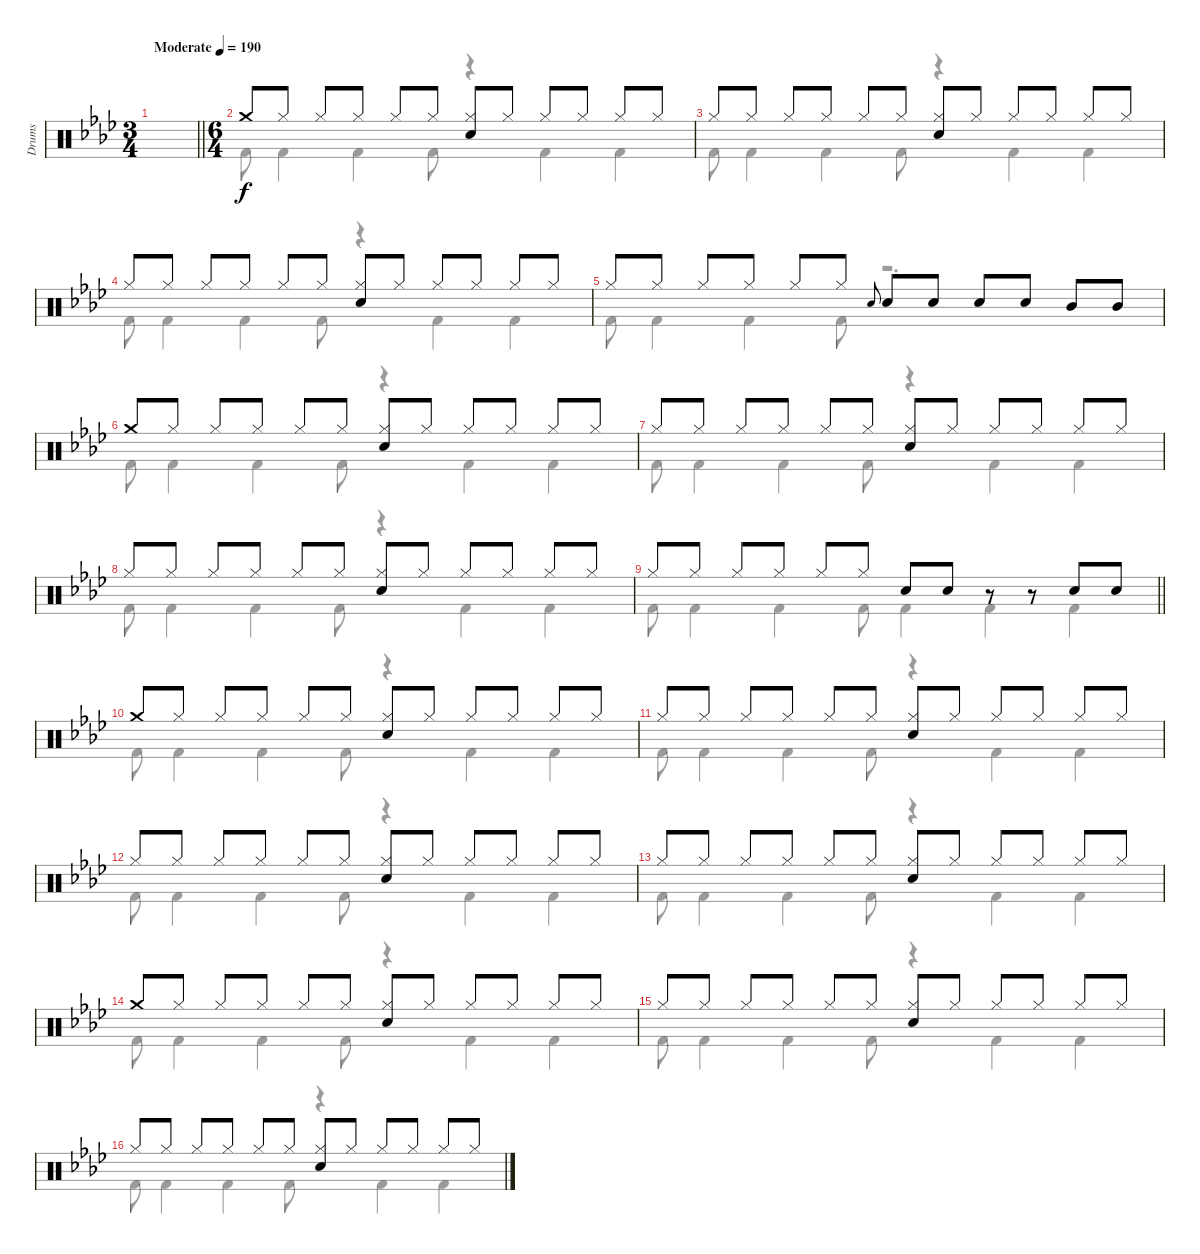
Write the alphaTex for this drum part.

\track ("Drums" "Drums") {instrument percussion}
\staff {score}
\articulation defaults
\voice
\ts (3 4)
\tempo (190 "Moderate")
\clef neutral
\barLineRight lightlight
\ks fminor
|
\ts (6 4)
"Crash medium (hit)".8 "Hi-Hat (closed)".8 "Hi-Hat (closed)".8 "Hi-Hat (closed)".8 "Hi-Hat (closed)".8 "Hi-Hat (closed)".8 ("Hi-Hat (closed)" "Snare (hit) 2").8 "Hi-Hat (closed)".8 "Hi-Hat (closed)".8 "Hi-Hat (closed)".8 "Hi-Hat (closed)".8 "Hi-Hat (closed)".8 |
"Hi-Hat (closed)".8 "Hi-Hat (closed)".8 "Hi-Hat (closed)".8 "Hi-Hat (closed)".8 "Hi-Hat (closed)".8 "Hi-Hat (closed)".8 ("Hi-Hat (closed)" "Snare (hit) 2").8 "Hi-Hat (closed)".8 "Hi-Hat (closed)".8 "Hi-Hat (closed)".8 "Hi-Hat (closed)".8 "Hi-Hat (closed)".8 |
"Hi-Hat (closed)".8 "Hi-Hat (closed)".8 "Hi-Hat (closed)".8 "Hi-Hat (closed)".8 "Hi-Hat (closed)".8 "Hi-Hat (closed)".8 ("Hi-Hat (closed)" "Snare (hit) 2").8 "Hi-Hat (closed)".8 "Hi-Hat (closed)".8 "Hi-Hat (closed)".8 "Hi-Hat (closed)".8 "Hi-Hat (closed)".8 |
"Hi-Hat (closed)".8 "Hi-Hat (closed)".8 "Hi-Hat (closed)".8 "Hi-Hat (closed)".8 "Hi-Hat (closed)".8 "Hi-Hat (closed)".8 "Snare (hit) 2".8{gr onbeat} "Snare (hit) 2".8 "Snare (hit) 2".8 "Snare (hit) 2".8 "Snare (hit) 2".8 "Mid Tom (hit)".8 "Mid Tom (hit)".8 |
"Crash medium (hit)".8 "Hi-Hat (closed)".8 "Hi-Hat (closed)".8 "Hi-Hat (closed)".8 "Hi-Hat (closed)".8 "Hi-Hat (closed)".8 ("Hi-Hat (closed)" "Snare (hit) 2").8 "Hi-Hat (closed)".8 "Hi-Hat (closed)".8 "Hi-Hat (closed)".8 "Hi-Hat (closed)".8 "Hi-Hat (closed)".8 |
"Hi-Hat (closed)".8 "Hi-Hat (closed)".8 "Hi-Hat (closed)".8 "Hi-Hat (closed)".8 "Hi-Hat (closed)".8 "Hi-Hat (closed)".8 ("Hi-Hat (closed)" "Snare (hit) 2").8 "Hi-Hat (closed)".8 "Hi-Hat (closed)".8 "Hi-Hat (closed)".8 "Hi-Hat (closed)".8 "Hi-Hat (closed)".8 |
"Hi-Hat (closed)".8 "Hi-Hat (closed)".8 "Hi-Hat (closed)".8 "Hi-Hat (closed)".8 "Hi-Hat (closed)".8 "Hi-Hat (closed)".8 ("Hi-Hat (closed)" "Snare (hit) 2").8 "Hi-Hat (closed)".8 "Hi-Hat (closed)".8 "Hi-Hat (closed)".8 "Hi-Hat (closed)".8 "Hi-Hat (closed)".8 |
\barLineRight lightlight "Hi-Hat (closed)".8 "Hi-Hat (closed)".8 "Hi-Hat (closed)".8 "Hi-Hat (closed)".8 "Hi-Hat (closed)".8 "Hi-Hat (closed)".8 "Snare (hit) 2".8 "Snare (hit) 2".8
r.8 r.8 "Snare (hit) 2".8 "Snare (hit) 2".8 |
"Crash medium (hit)".8 "Hi-Hat (closed)".8 "Hi-Hat (closed)".8 "Hi-Hat (closed)".8 "Hi-Hat (closed)".8 "Hi-Hat (closed)".8 ("Hi-Hat (closed)" "Snare (hit) 2").8 "Hi-Hat (closed)".8 "Hi-Hat (closed)".8 "Hi-Hat (closed)".8 "Hi-Hat (closed)".8 "Hi-Hat (closed)".8 |
"Hi-Hat (closed)".8 "Hi-Hat (closed)".8 "Hi-Hat (closed)".8 "Hi-Hat (closed)".8 "Hi-Hat (closed)".8 "Hi-Hat (closed)".8 ("Hi-Hat (closed)" "Snare (hit) 2").8 "Hi-Hat (closed)".8 "Hi-Hat (closed)".8 "Hi-Hat (closed)".8 "Hi-Hat (closed)".8 "Hi-Hat (closed)".8 |
"Hi-Hat (closed)".8 "Hi-Hat (closed)".8 "Hi-Hat (closed)".8 "Hi-Hat (closed)".8 "Hi-Hat (closed)".8 "Hi-Hat (closed)".8 ("Hi-Hat (closed)" "Snare (hit) 2").8 "Hi-Hat (closed)".8 "Hi-Hat (closed)".8 "Hi-Hat (closed)".8 "Hi-Hat (closed)".8 "Hi-Hat (closed)".8 |
"Hi-Hat (closed)".8 "Hi-Hat (closed)".8 "Hi-Hat (closed)".8 "Hi-Hat (closed)".8 "Hi-Hat (closed)".8 "Hi-Hat (closed)".8 ("Hi-Hat (closed)" "Snare (hit) 2").8 "Hi-Hat (closed)".8 "Hi-Hat (closed)".8 "Hi-Hat (closed)".8 "Hi-Hat (closed)".8 "Hi-Hat (closed)".8 |
"Crash medium (hit)".8 "Hi-Hat (closed)".8 "Hi-Hat (closed)".8 "Hi-Hat (closed)".8 "Hi-Hat (closed)".8 "Hi-Hat (closed)".8 ("Hi-Hat (closed)" "Snare (hit) 2").8 "Hi-Hat (closed)".8 "Hi-Hat (closed)".8 "Hi-Hat (closed)".8 "Hi-Hat (closed)".8 "Hi-Hat (closed)".8 |
"Hi-Hat (closed)".8 "Hi-Hat (closed)".8 "Hi-Hat (closed)".8 "Hi-Hat (closed)".8 "Hi-Hat (closed)".8 "Hi-Hat (closed)".8 ("Hi-Hat (closed)" "Snare (hit) 2").8 "Hi-Hat (closed)".8 "Hi-Hat (closed)".8 "Hi-Hat (closed)".8 "Hi-Hat (closed)".8 "Hi-Hat (closed)".8 |
"Hi-Hat (closed)".8 "Hi-Hat (closed)".8 "Hi-Hat (closed)".8 "Hi-Hat (closed)".8 "Hi-Hat (closed)".8 "Hi-Hat (closed)".8 ("Hi-Hat (closed)" "Snare (hit) 2").8 "Hi-Hat (closed)".8 "Hi-Hat (closed)".8 "Hi-Hat (closed)".8 "Hi-Hat (closed)".8 "Hi-Hat (closed)".8
\voice
\clef neutral
\ottava regular
\simile none
\barLineRight lightlight
\ks fminor
|
"Kick (hit) 2".8 "Kick (hit) 2".4 "Kick (hit) 2".4 "Kick (hit) 2".8 r.4 "Kick (hit) 2".4 "Kick (hit) 2".4 |
"Kick (hit) 2".8 "Kick (hit) 2".4 "Kick (hit) 2".4 "Kick (hit) 2".8 r.4 "Kick (hit) 2".4 "Kick (hit) 2".4 |
"Kick (hit) 2".8 "Kick (hit) 2".4 "Kick (hit) 2".4 "Kick (hit) 2".8 r.4 "Kick (hit) 2".4 "Kick (hit) 2".4 |
"Kick (hit) 2".8 "Kick (hit) 2".4 "Kick (hit) 2".4 "Kick (hit) 2".8 r.2{d} |
"Kick (hit) 2".8 "Kick (hit) 2".4 "Kick (hit) 2".4 "Kick (hit) 2".8 r.4 "Kick (hit) 2".4 "Kick (hit) 2".4 |
"Kick (hit) 2".8 "Kick (hit) 2".4 "Kick (hit) 2".4 "Kick (hit) 2".8 r.4 "Kick (hit) 2".4 "Kick (hit) 2".4 |
"Kick (hit) 2".8 "Kick (hit) 2".4 "Kick (hit) 2".4 "Kick (hit) 2".8 r.4 "Kick (hit) 2".4 "Kick (hit) 2".4 |
\barLineRight lightlight "Kick (hit) 2".8 "Kick (hit) 2".4 "Kick (hit) 2".4 "Kick (hit) 2".8 "Kick (hit) 2".4 "Kick (hit) 2".4 "Kick (hit) 2".4
|
"Kick (hit) 2".8 "Kick (hit) 2".4 "Kick (hit) 2".4 "Kick (hit) 2".8 r.4 "Kick (hit) 2".4 "Kick (hit) 2".4 |
"Kick (hit) 2".8 "Kick (hit) 2".4 "Kick (hit) 2".4 "Kick (hit) 2".8 r.4 "Kick (hit) 2".4 "Kick (hit) 2".4 |
"Kick (hit) 2".8 "Kick (hit) 2".4 "Kick (hit) 2".4 "Kick (hit) 2".8 r.4 "Kick (hit) 2".4 "Kick (hit) 2".4 |
"Kick (hit) 2".8 "Kick (hit) 2".4 "Kick (hit) 2".4 "Kick (hit) 2".8 r.4 "Kick (hit) 2".4 "Kick (hit) 2".4 |
"Kick (hit) 2".8 "Kick (hit) 2".4 "Kick (hit) 2".4 "Kick (hit) 2".8 r.4 "Kick (hit) 2".4 "Kick (hit) 2".4 |
"Kick (hit) 2".8 "Kick (hit) 2".4 "Kick (hit) 2".4 "Kick (hit) 2".8 r.4 "Kick (hit) 2".4 "Kick (hit) 2".4 |
"Kick (hit) 2".8 "Kick (hit) 2".4 "Kick (hit) 2".4 "Kick (hit) 2".8 r.4 "Kick (hit) 2".4 "Kick (hit) 2".4
